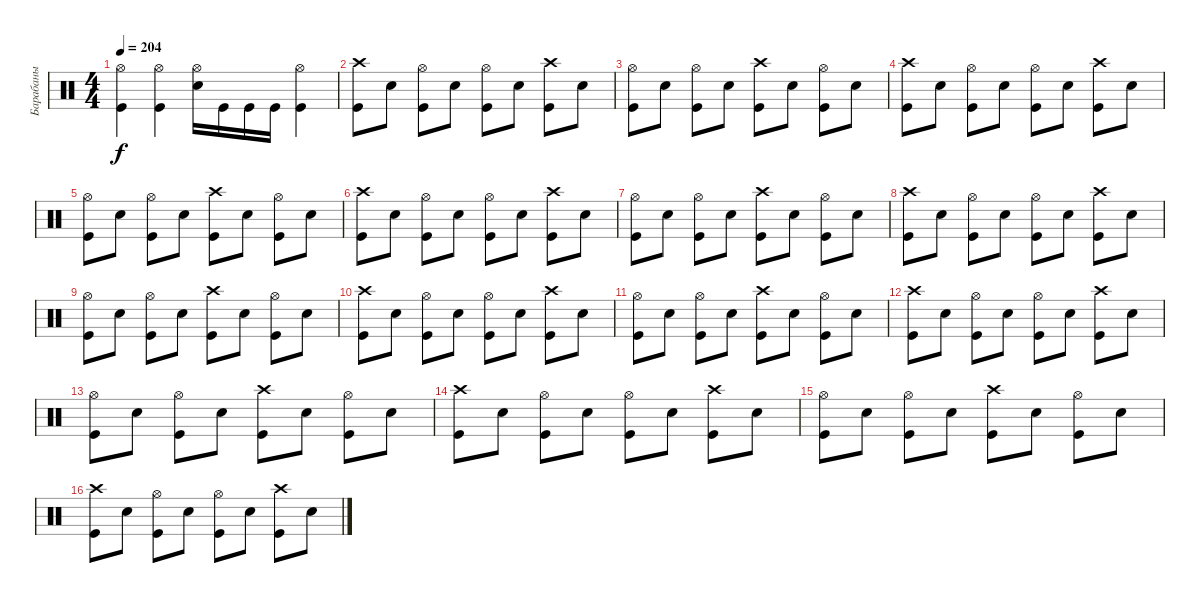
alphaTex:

\track ("Барабаны" "Барабаны") {instrument percussion}
\staff {score}
\articulation defaults
\ts (4 4)
\tempo 204
\clef neutral
\ks c
("Hi-Hat (open)" "Kick (hit)").4{dy f} ("Hi-Hat (open)" "Kick (hit)").4 ("Hi-Hat (open)" "Electric Snare (hit)").16 "Kick (hit)".16 "Kick (hit)".16 "Kick (hit)".16 ("Hi-Hat (open)" "Kick (hit)").4 |
("Crash high (hit)" "Kick (hit)").8 "Electric Snare (hit)".8 ("Hi-Hat (open)" "Kick (hit)").8 "Electric Snare (hit)".8 ("Hi-Hat (open)" "Kick (hit)").8 "Electric Snare (hit)".8 ("Crash high (hit)" "Kick (hit)").8 "Electric Snare (hit)".8 |
("Hi-Hat (open)" "Kick (hit)").8 "Electric Snare (hit)".8 ("Hi-Hat (open)" "Kick (hit)").8 "Electric Snare (hit)".8 ("Crash high (hit)" "Kick (hit)").8 "Electric Snare (hit)".8 ("Hi-Hat (open)" "Kick (hit)").8 "Electric Snare (hit)".8 |
("Crash high (hit)" "Kick (hit)").8 "Electric Snare (hit)".8 ("Hi-Hat (open)" "Kick (hit)").8 "Electric Snare (hit)".8 ("Hi-Hat (open)" "Kick (hit)").8 "Electric Snare (hit)".8 ("Crash high (hit)" "Kick (hit)").8 "Electric Snare (hit)".8 |
("Hi-Hat (open)" "Kick (hit)").8 "Electric Snare (hit)".8 ("Hi-Hat (open)" "Kick (hit)").8 "Electric Snare (hit)".8 ("Crash high (hit)" "Kick (hit)").8 "Electric Snare (hit)".8 ("Hi-Hat (open)" "Kick (hit)").8 "Electric Snare (hit)".8 |
("Crash high (hit)" "Kick (hit)").8 "Electric Snare (hit)".8 ("Hi-Hat (open)" "Kick (hit)").8 "Electric Snare (hit)".8 ("Hi-Hat (open)" "Kick (hit)").8 "Electric Snare (hit)".8 ("Crash high (hit)" "Kick (hit)").8 "Electric Snare (hit)".8 |
("Hi-Hat (open)" "Kick (hit)").8 "Electric Snare (hit)".8 ("Hi-Hat (open)" "Kick (hit)").8 "Electric Snare (hit)".8 ("Crash high (hit)" "Kick (hit)").8 "Electric Snare (hit)".8 ("Hi-Hat (open)" "Kick (hit)").8 "Electric Snare (hit)".8 |
("Crash high (hit)" "Kick (hit)").8 "Electric Snare (hit)".8 ("Hi-Hat (open)" "Kick (hit)").8 "Electric Snare (hit)".8 ("Hi-Hat (open)" "Kick (hit)").8 "Electric Snare (hit)".8 ("Crash high (hit)" "Kick (hit)").8 "Electric Snare (hit)".8 |
("Hi-Hat (open)" "Kick (hit)").8 "Electric Snare (hit)".8 ("Hi-Hat (open)" "Kick (hit)").8 "Electric Snare (hit)".8 ("Crash high (hit)" "Kick (hit)").8 "Electric Snare (hit)".8 ("Hi-Hat (open)" "Kick (hit)").8 "Electric Snare (hit)".8 |
("Crash high (hit)" "Kick (hit)").8 "Electric Snare (hit)".8 ("Hi-Hat (open)" "Kick (hit)").8 "Electric Snare (hit)".8 ("Hi-Hat (open)" "Kick (hit)").8 "Electric Snare (hit)".8 ("Crash high (hit)" "Kick (hit)").8 "Electric Snare (hit)".8 |
("Hi-Hat (open)" "Kick (hit)").8 "Electric Snare (hit)".8 ("Hi-Hat (open)" "Kick (hit)").8 "Electric Snare (hit)".8 ("Crash high (hit)" "Kick (hit)").8 "Electric Snare (hit)".8 ("Hi-Hat (open)" "Kick (hit)").8 "Electric Snare (hit)".8 |
("Crash high (hit)" "Kick (hit)").8 "Electric Snare (hit)".8 ("Hi-Hat (open)" "Kick (hit)").8 "Electric Snare (hit)".8 ("Hi-Hat (open)" "Kick (hit)").8 "Electric Snare (hit)".8 ("Crash high (hit)" "Kick (hit)").8 "Electric Snare (hit)".8 |
("Hi-Hat (open)" "Kick (hit)").8 "Electric Snare (hit)".8 ("Hi-Hat (open)" "Kick (hit)").8 "Electric Snare (hit)".8 ("Crash high (hit)" "Kick (hit)").8 "Electric Snare (hit)".8 ("Hi-Hat (open)" "Kick (hit)").8 "Electric Snare (hit)".8 |
("Crash high (hit)" "Kick (hit)").8 "Electric Snare (hit)".8 ("Hi-Hat (open)" "Kick (hit)").8 "Electric Snare (hit)".8 ("Hi-Hat (open)" "Kick (hit)").8 "Electric Snare (hit)".8 ("Crash high (hit)" "Kick (hit)").8 "Electric Snare (hit)".8 |
("Hi-Hat (open)" "Kick (hit)").8 "Electric Snare (hit)".8 ("Hi-Hat (open)" "Kick (hit)").8 "Electric Snare (hit)".8 ("Crash high (hit)" "Kick (hit)").8 "Electric Snare (hit)".8 ("Hi-Hat (open)" "Kick (hit)").8 "Electric Snare (hit)".8 |
("Crash high (hit)" "Kick (hit)").8 "Electric Snare (hit)".8 ("Hi-Hat (open)" "Kick (hit)").8 "Electric Snare (hit)".8 ("Hi-Hat (open)" "Kick (hit)").8 "Electric Snare (hit)".8 ("Crash high (hit)" "Kick (hit)").8 "Electric Snare (hit)".8
